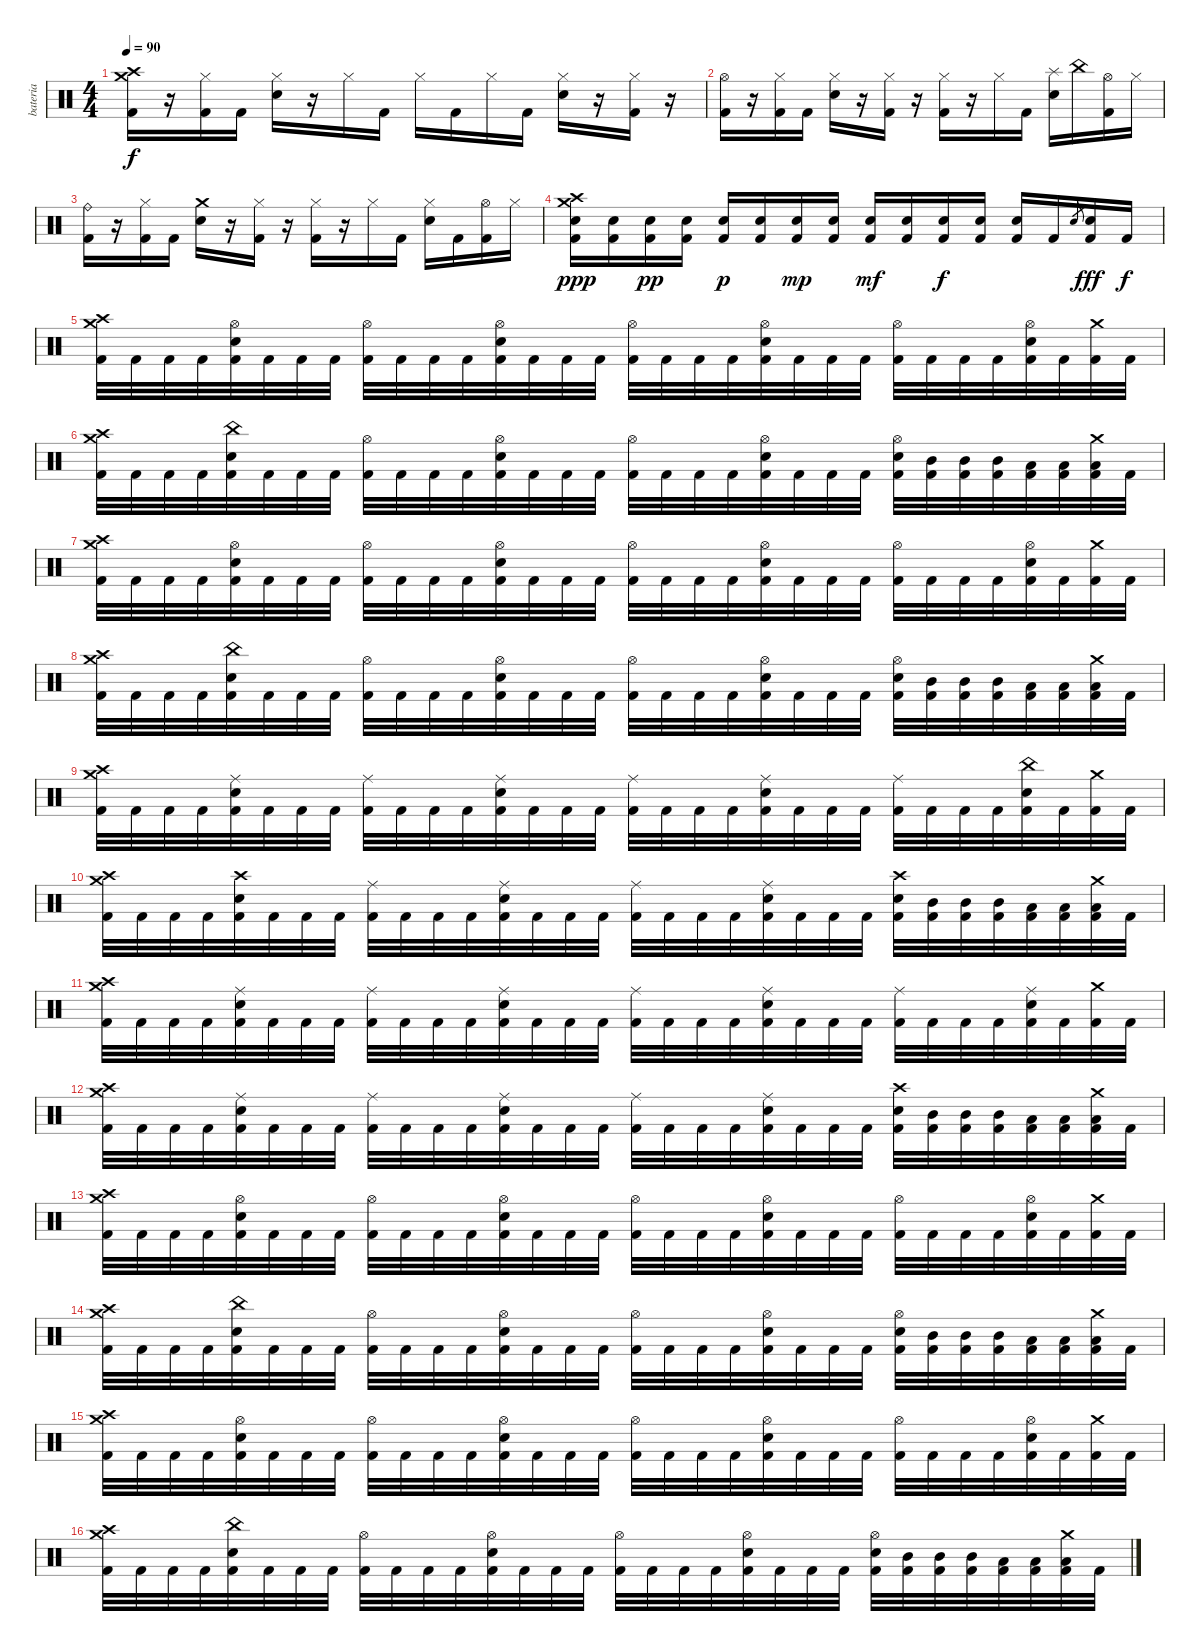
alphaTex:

\track ("bateria" "bateria") {instrument percussion}
\staff {score}
\articulation defaults
\ts (4 4)
\tempo 90
\clef neutral
\ks c
("Crash high (hit)" "Crash medium (hit)" "Kick (hit) 2").16{dy f} r.16 ("Hi-Hat (closed)" "Kick (hit) 2").16 "Kick (hit) 2".16 ("Hi-Hat (closed)" "Snare (hit) 2").16 r.16 "Hi-Hat (closed)".16 "Kick (hit) 2".16 "Hi-Hat (closed)".16 "Kick (hit) 2".16 "Hi-Hat (closed)".16 "Kick (hit) 2".16 ("Hi-Hat (closed)" "Snare (hit) 2").16 r.16 ("Hi-Hat (closed)" "Kick (hit) 2").16 r.16 |
("Hi-Hat (open)" "Kick (hit) 2").16 r.16 ("Hi-Hat (closed)" "Kick (hit) 2").16 "Kick (hit) 2".16 ("Hi-Hat (closed)" "Snare (hit) 2").16 r.16 ("Hi-Hat (closed)" "Kick (hit) 2").16 r.16 ("Hi-Hat (closed)" "Kick (hit) 2").16 r.16 "Hi-Hat (closed)".16 "Kick (hit) 2".16 ("Splash (hit)" "Snare (hit) 2").16 "China (hit)".16 ("Hi-Hat (open)" "Kick (hit) 2").16 "Hi-Hat (closed)".16 |
("Ride (bell)" "Kick (hit) 2").16 r.16 ("Hi-Hat (closed)" "Kick (hit) 2").16 "Kick (hit) 2".16 ("Crash medium (hit)" "Snare (hit) 2").16 r.16 ("Hi-Hat (closed)" "Kick (hit) 2").16 r.16 ("Hi-Hat (closed)" "Kick (hit) 2").16 r.16 "Hi-Hat (closed)".16 "Kick (hit) 2".16 ("Hi-Hat (closed)" "Snare (hit) 2").16 "Kick (hit) 2".16 ("Hi-Hat (open)" "Kick (hit) 2").16 "Hi-Hat (closed)".16 |
("Crash medium (hit)" "Crash high (hit)" "Snare (hit) 2" "Kick (hit) 2").16{dy ppp} ("Snare (hit) 2" "Kick (hit) 2").16 ("Snare (hit) 2" "Kick (hit) 2").16{dy pp} ("Snare (hit) 2" "Kick (hit) 2").16 ("Snare (hit) 2" "Kick (hit) 2").16{dy p} ("Snare (hit) 2" "Kick (hit) 2").16 ("Snare (hit) 2" "Kick (hit) 2").16{dy mp} ("Snare (hit) 2" "Kick (hit) 2").16 ("Snare (hit) 2" "Kick (hit) 2").16{dy mf} ("Snare (hit) 2" "Kick (hit) 2").16 ("Snare (hit) 2" "Kick (hit) 2").16{dy f} ("Snare (hit) 2" "Kick (hit) 2").16 ("Snare (hit) 2" "Kick (hit) 2").16 "Kick (hit) 2".16 "Snare (hit) 2".8{gr} ("Snare (hit) 2" "Kick (hit) 2").16{dy fff} "Kick (hit) 2".16{dy f} |
("Crash medium (hit)" "Crash high (hit)" "Kick (hit) 2").32 "Kick (hit) 2".32 "Kick (hit) 2".32 "Kick (hit) 2".32 ("Hi-Hat (open)" "Snare (hit) 2" "Kick (hit) 2").32 "Kick (hit) 2".32 "Kick (hit) 2".32 "Kick (hit) 2".32 ("Hi-Hat (open)" "Kick (hit) 2").32 "Kick (hit) 2".32 "Kick (hit) 2".32 "Kick (hit) 2".32 ("Hi-Hat (open)" "Snare (hit) 2" "Kick (hit) 2").32 "Kick (hit) 2".32 "Kick (hit) 2".32 "Kick (hit) 2".32 ("Hi-Hat (open)" "Kick (hit) 2").32 "Kick (hit) 2".32 "Kick (hit) 2".32 "Kick (hit) 2".32 ("Hi-Hat (open)" "Snare (hit) 2" "Kick (hit) 2").32 "Kick (hit) 2".32 "Kick (hit) 2".32 "Kick (hit) 2".32 ("Hi-Hat (open)" "Kick (hit) 2").32 "Kick (hit) 2".32 "Kick (hit) 2".32 "Kick (hit) 2".32 ("Hi-Hat (open)" "Snare (hit) 2" "Kick (hit) 2").32 "Kick (hit) 2".32 ("Crash medium (hit)" "Kick (hit) 2").32 "Kick (hit) 2".32 |
("Crash medium (hit)" "Crash high (hit)" "Kick (hit) 2").32 "Kick (hit) 2".32 "Kick (hit) 2".32 "Kick (hit) 2".32 ("China (hit)" "Snare (hit) 2" "Kick (hit) 2").32 "Kick (hit) 2".32 "Kick (hit) 2".32 "Kick (hit) 2".32 ("Hi-Hat (open)" "Kick (hit) 2").32 "Kick (hit) 2".32 "Kick (hit) 2".32 "Kick (hit) 2".32 ("Hi-Hat (open)" "Snare (hit) 2" "Kick (hit) 2").32 "Kick (hit) 2".32 "Kick (hit) 2".32 "Kick (hit) 2".32 ("Hi-Hat (open)" "Kick (hit) 2").32 "Kick (hit) 2".32 "Kick (hit) 2".32 "Kick (hit) 2".32 ("Hi-Hat (open)" "Snare (hit) 2" "Kick (hit) 2").32 "Kick (hit) 2".32 "Kick (hit) 2".32 "Kick (hit) 2".32 ("Hi-Hat (open)" "Snare (hit) 2" "Kick (hit) 2").32 ("Mid Tom (hit)" "Kick (hit) 2").32 ("Mid Tom (hit)" "Kick (hit) 2").32 ("Mid Tom (hit)" "Kick (hit) 2").32 ("Low Tom (hit)" "Kick (hit) 2").32 ("Low Tom (hit)" "Kick (hit) 2").32 ("Crash medium (hit)" "Low Tom (hit)" "Kick (hit) 2").32 "Kick (hit) 2".32 |
("Crash medium (hit)" "Crash high (hit)" "Kick (hit) 2").32 "Kick (hit) 2".32 "Kick (hit) 2".32 "Kick (hit) 2".32 ("Hi-Hat (open)" "Snare (hit) 2" "Kick (hit) 2").32 "Kick (hit) 2".32 "Kick (hit) 2".32 "Kick (hit) 2".32 ("Hi-Hat (open)" "Kick (hit) 2").32 "Kick (hit) 2".32 "Kick (hit) 2".32 "Kick (hit) 2".32 ("Hi-Hat (open)" "Snare (hit) 2" "Kick (hit) 2").32 "Kick (hit) 2".32 "Kick (hit) 2".32 "Kick (hit) 2".32 ("Hi-Hat (open)" "Kick (hit) 2").32 "Kick (hit) 2".32 "Kick (hit) 2".32 "Kick (hit) 2".32 ("Hi-Hat (open)" "Snare (hit) 2" "Kick (hit) 2").32 "Kick (hit) 2".32 "Kick (hit) 2".32 "Kick (hit) 2".32 ("Hi-Hat (open)" "Kick (hit) 2").32 "Kick (hit) 2".32 "Kick (hit) 2".32 "Kick (hit) 2".32 ("Hi-Hat (open)" "Snare (hit) 2" "Kick (hit) 2").32 "Kick (hit) 2".32 ("Crash medium (hit)" "Kick (hit) 2").32 "Kick (hit) 2".32 |
("Crash medium (hit)" "Crash high (hit)" "Kick (hit) 2").32 "Kick (hit) 2".32 "Kick (hit) 2".32 "Kick (hit) 2".32 ("China (hit)" "Snare (hit) 2" "Kick (hit) 2").32 "Kick (hit) 2".32 "Kick (hit) 2".32 "Kick (hit) 2".32 ("Hi-Hat (open)" "Kick (hit) 2").32 "Kick (hit) 2".32 "Kick (hit) 2".32 "Kick (hit) 2".32 ("Hi-Hat (open)" "Snare (hit) 2" "Kick (hit) 2").32 "Kick (hit) 2".32 "Kick (hit) 2".32 "Kick (hit) 2".32 ("Hi-Hat (open)" "Kick (hit) 2").32 "Kick (hit) 2".32 "Kick (hit) 2".32 "Kick (hit) 2".32 ("Hi-Hat (open)" "Snare (hit) 2" "Kick (hit) 2").32 "Kick (hit) 2".32 "Kick (hit) 2".32 "Kick (hit) 2".32 ("Hi-Hat (open)" "Snare (hit) 2" "Kick (hit) 2").32 ("Mid Tom (hit)" "Kick (hit) 2").32 ("Mid Tom (hit)" "Kick (hit) 2").32 ("Mid Tom (hit)" "Kick (hit) 2").32 ("Low Tom (hit)" "Kick (hit) 2").32 ("Low Tom (hit)" "Kick (hit) 2").32 ("Crash medium (hit)" "Low Tom (hit)" "Kick (hit) 2").32 "Kick (hit) 2".32 |
("Crash medium (hit)" "Crash high (hit)" "Kick (hit) 2").32 "Kick (hit) 2".32 "Kick (hit) 2".32 "Kick (hit) 2".32 ("Ride (middle)" "Snare (hit) 2" "Kick (hit) 2").32 "Kick (hit) 2".32 "Kick (hit) 2".32 "Kick (hit) 2".32 ("Ride (middle)" "Kick (hit) 2").32 "Kick (hit) 2".32 "Kick (hit) 2".32 "Kick (hit) 2".32 ("Ride (middle)" "Snare (hit) 2" "Kick (hit) 2").32 "Kick (hit) 2".32 "Kick (hit) 2".32 "Kick (hit) 2".32 ("Ride (middle)" "Kick (hit) 2").32 "Kick (hit) 2".32 "Kick (hit) 2".32 "Kick (hit) 2".32 ("Ride (middle)" "Snare (hit) 2" "Kick (hit) 2").32 "Kick (hit) 2".32 "Kick (hit) 2".32 "Kick (hit) 2".32 ("Ride (middle)" "Kick (hit) 2").32 "Kick (hit) 2".32 "Kick (hit) 2".32 "Kick (hit) 2".32 ("China (hit)" "Snare (hit) 2" "Kick (hit) 2").32 "Kick (hit) 2".32 ("Crash medium (hit)" "Kick (hit) 2").32 "Kick (hit) 2".32 |
("Crash medium (hit)" "Crash high (hit)" "Kick (hit) 2").32 "Kick (hit) 2".32 "Kick (hit) 2".32 "Kick (hit) 2".32 ("Crash high (hit)" "Snare (hit) 2" "Kick (hit) 2").32 "Kick (hit) 2".32 "Kick (hit) 2".32 "Kick (hit) 2".32 ("Ride (middle)" "Kick (hit) 2").32 "Kick (hit) 2".32 "Kick (hit) 2".32 "Kick (hit) 2".32 ("Ride (middle)" "Snare (hit) 2" "Kick (hit) 2").32 "Kick (hit) 2".32 "Kick (hit) 2".32 "Kick (hit) 2".32 ("Ride (middle)" "Kick (hit) 2").32 "Kick (hit) 2".32 "Kick (hit) 2".32 "Kick (hit) 2".32 ("Ride (middle)" "Snare (hit) 2" "Kick (hit) 2").32 "Kick (hit) 2".32 "Kick (hit) 2".32 "Kick (hit) 2".32 ("Crash high (hit)" "Snare (hit) 2" "Kick (hit) 2").32 ("Mid Tom (hit)" "Kick (hit) 2").32 ("Mid Tom (hit)" "Kick (hit) 2").32 ("Mid Tom (hit)" "Kick (hit) 2").32 ("Low Tom (hit)" "Kick (hit) 2").32 ("Low Tom (hit)" "Kick (hit) 2").32 ("Crash medium (hit)" "Low Tom (hit)" "Kick (hit) 2").32 "Kick (hit) 2".32 |
("Crash medium (hit)" "Crash high (hit)" "Kick (hit) 2").32 "Kick (hit) 2".32 "Kick (hit) 2".32 "Kick (hit) 2".32 ("Ride (middle)" "Snare (hit) 2" "Kick (hit) 2").32 "Kick (hit) 2".32 "Kick (hit) 2".32 "Kick (hit) 2".32 ("Ride (middle)" "Kick (hit) 2").32 "Kick (hit) 2".32 "Kick (hit) 2".32 "Kick (hit) 2".32 ("Ride (middle)" "Snare (hit) 2" "Kick (hit) 2").32 "Kick (hit) 2".32 "Kick (hit) 2".32 "Kick (hit) 2".32 ("Ride (middle)" "Kick (hit) 2").32 "Kick (hit) 2".32 "Kick (hit) 2".32 "Kick (hit) 2".32 ("Ride (middle)" "Snare (hit) 2" "Kick (hit) 2").32 "Kick (hit) 2".32 "Kick (hit) 2".32 "Kick (hit) 2".32 ("Ride (middle)" "Kick (hit) 2").32 "Kick (hit) 2".32 "Kick (hit) 2".32 "Kick (hit) 2".32 ("Ride (middle)" "Snare (hit) 2" "Kick (hit) 2").32 "Kick (hit) 2".32 ("Crash medium (hit)" "Kick (hit) 2").32 "Kick (hit) 2".32 |
("Crash medium (hit)" "Crash high (hit)" "Kick (hit) 2").32 "Kick (hit) 2".32 "Kick (hit) 2".32 "Kick (hit) 2".32 ("Ride (middle)" "Snare (hit) 2" "Kick (hit) 2").32 "Kick (hit) 2".32 "Kick (hit) 2".32 "Kick (hit) 2".32 ("Ride (middle)" "Kick (hit) 2").32 "Kick (hit) 2".32 "Kick (hit) 2".32 "Kick (hit) 2".32 ("Ride (middle)" "Snare (hit) 2" "Kick (hit) 2").32 "Kick (hit) 2".32 "Kick (hit) 2".32 "Kick (hit) 2".32 ("Ride (middle)" "Kick (hit) 2").32 "Kick (hit) 2".32 "Kick (hit) 2".32 "Kick (hit) 2".32 ("Ride (middle)" "Snare (hit) 2" "Kick (hit) 2").32 "Kick (hit) 2".32 "Kick (hit) 2".32 "Kick (hit) 2".32 ("Crash high (hit)" "Snare (hit) 2" "Kick (hit) 2").32 ("Mid Tom (hit)" "Kick (hit) 2").32 ("Mid Tom (hit)" "Kick (hit) 2").32 ("Mid Tom (hit)" "Kick (hit) 2").32 ("Low Tom (hit)" "Kick (hit) 2").32 ("Low Tom (hit)" "Kick (hit) 2").32 ("Crash medium (hit)" "Low Tom (hit)" "Kick (hit) 2").32 "Kick (hit) 2".32 |
("Crash medium (hit)" "Crash high (hit)" "Kick (hit) 2").32 "Kick (hit) 2".32 "Kick (hit) 2".32 "Kick (hit) 2".32 ("Hi-Hat (open)" "Snare (hit) 2" "Kick (hit) 2").32 "Kick (hit) 2".32 "Kick (hit) 2".32 "Kick (hit) 2".32 ("Hi-Hat (open)" "Kick (hit) 2").32 "Kick (hit) 2".32 "Kick (hit) 2".32 "Kick (hit) 2".32 ("Hi-Hat (open)" "Snare (hit) 2" "Kick (hit) 2").32 "Kick (hit) 2".32 "Kick (hit) 2".32 "Kick (hit) 2".32 ("Hi-Hat (open)" "Kick (hit) 2").32 "Kick (hit) 2".32 "Kick (hit) 2".32 "Kick (hit) 2".32 ("Hi-Hat (open)" "Snare (hit) 2" "Kick (hit) 2").32 "Kick (hit) 2".32 "Kick (hit) 2".32 "Kick (hit) 2".32 ("Hi-Hat (open)" "Kick (hit) 2").32 "Kick (hit) 2".32 "Kick (hit) 2".32 "Kick (hit) 2".32 ("Hi-Hat (open)" "Snare (hit) 2" "Kick (hit) 2").32 "Kick (hit) 2".32 ("Crash medium (hit)" "Kick (hit) 2").32 "Kick (hit) 2".32 |
("Crash medium (hit)" "Crash high (hit)" "Kick (hit) 2").32 "Kick (hit) 2".32 "Kick (hit) 2".32 "Kick (hit) 2".32 ("China (hit)" "Snare (hit) 2" "Kick (hit) 2").32 "Kick (hit) 2".32 "Kick (hit) 2".32 "Kick (hit) 2".32 ("Hi-Hat (open)" "Kick (hit) 2").32 "Kick (hit) 2".32 "Kick (hit) 2".32 "Kick (hit) 2".32 ("Hi-Hat (open)" "Snare (hit) 2" "Kick (hit) 2").32 "Kick (hit) 2".32 "Kick (hit) 2".32 "Kick (hit) 2".32 ("Hi-Hat (open)" "Kick (hit) 2").32 "Kick (hit) 2".32 "Kick (hit) 2".32 "Kick (hit) 2".32 ("Hi-Hat (open)" "Snare (hit) 2" "Kick (hit) 2").32 "Kick (hit) 2".32 "Kick (hit) 2".32 "Kick (hit) 2".32 ("Hi-Hat (open)" "Snare (hit) 2" "Kick (hit) 2").32 ("Mid Tom (hit)" "Kick (hit) 2").32 ("Mid Tom (hit)" "Kick (hit) 2").32 ("Mid Tom (hit)" "Kick (hit) 2").32 ("Low Tom (hit)" "Kick (hit) 2").32 ("Low Tom (hit)" "Kick (hit) 2").32 ("Crash medium (hit)" "Low Tom (hit)" "Kick (hit) 2").32 "Kick (hit) 2".32 |
("Crash medium (hit)" "Crash high (hit)" "Kick (hit) 2").32 "Kick (hit) 2".32 "Kick (hit) 2".32 "Kick (hit) 2".32 ("Hi-Hat (open)" "Snare (hit) 2" "Kick (hit) 2").32 "Kick (hit) 2".32 "Kick (hit) 2".32 "Kick (hit) 2".32 ("Hi-Hat (open)" "Kick (hit) 2").32 "Kick (hit) 2".32 "Kick (hit) 2".32 "Kick (hit) 2".32 ("Hi-Hat (open)" "Snare (hit) 2" "Kick (hit) 2").32 "Kick (hit) 2".32 "Kick (hit) 2".32 "Kick (hit) 2".32 ("Hi-Hat (open)" "Kick (hit) 2").32 "Kick (hit) 2".32 "Kick (hit) 2".32 "Kick (hit) 2".32 ("Hi-Hat (open)" "Snare (hit) 2" "Kick (hit) 2").32 "Kick (hit) 2".32 "Kick (hit) 2".32 "Kick (hit) 2".32 ("Hi-Hat (open)" "Kick (hit) 2").32 "Kick (hit) 2".32 "Kick (hit) 2".32 "Kick (hit) 2".32 ("Hi-Hat (open)" "Snare (hit) 2" "Kick (hit) 2").32 "Kick (hit) 2".32 ("Crash medium (hit)" "Kick (hit) 2").32 "Kick (hit) 2".32 |
("Crash medium (hit)" "Crash high (hit)" "Kick (hit) 2").32 "Kick (hit) 2".32 "Kick (hit) 2".32 "Kick (hit) 2".32 ("China (hit)" "Snare (hit) 2" "Kick (hit) 2").32 "Kick (hit) 2".32 "Kick (hit) 2".32 "Kick (hit) 2".32 ("Hi-Hat (open)" "Kick (hit) 2").32 "Kick (hit) 2".32 "Kick (hit) 2".32 "Kick (hit) 2".32 ("Hi-Hat (open)" "Snare (hit) 2" "Kick (hit) 2").32 "Kick (hit) 2".32 "Kick (hit) 2".32 "Kick (hit) 2".32 ("Hi-Hat (open)" "Kick (hit) 2").32 "Kick (hit) 2".32 "Kick (hit) 2".32 "Kick (hit) 2".32 ("Hi-Hat (open)" "Snare (hit) 2" "Kick (hit) 2").32 "Kick (hit) 2".32 "Kick (hit) 2".32 "Kick (hit) 2".32 ("Hi-Hat (open)" "Snare (hit) 2" "Kick (hit) 2").32 ("Mid Tom (hit)" "Kick (hit) 2").32 ("Mid Tom (hit)" "Kick (hit) 2").32 ("Mid Tom (hit)" "Kick (hit) 2").32 ("Low Tom (hit)" "Kick (hit) 2").32 ("Low Tom (hit)" "Kick (hit) 2").32 ("Crash medium (hit)" "Low Tom (hit)" "Kick (hit) 2").32 "Kick (hit) 2".32
